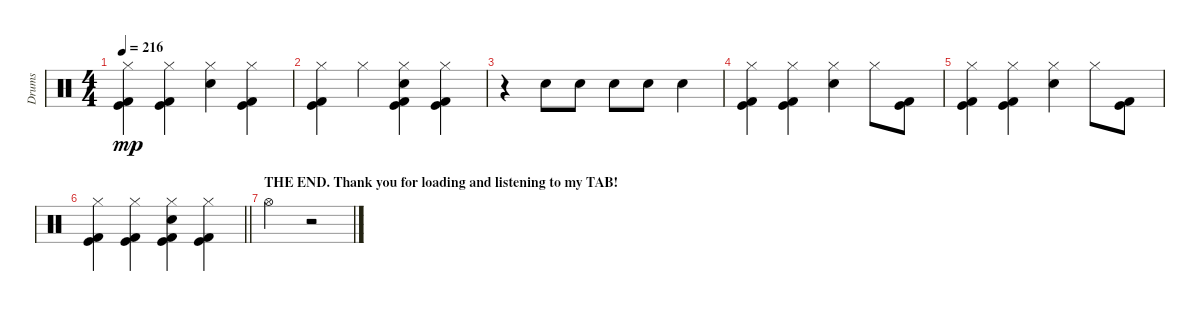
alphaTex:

\track ("Drums" "Drums") {instrument percussion}
\staff {score}
\articulation defaults
\ts (4 4)
\tempo 216
\clef neutral
\ks c
("Hi-Hat (closed)" "Kick (hit)" "Kick (hit) 2").4{dy mp} ("Hi-Hat (closed)" "Kick (hit)" "Kick (hit) 2").4 ("Hi-Hat (closed)" "Snare (hit) 2").4 ("Hi-Hat (closed)" "Kick (hit)" "Kick (hit) 2").4 |
("Hi-Hat (closed)" "Kick (hit)" "Kick (hit) 2").4 "Hi-Hat (closed)".4 ("Hi-Hat (closed)" "Kick (hit)" "Snare (hit) 2" "Kick (hit) 2").4 ("Hi-Hat (closed)" "Kick (hit)" "Kick (hit) 2").4 |
r.4 "Snare (hit) 2".8 "Snare (hit) 2".8 "Snare (hit) 2".8 "Snare (hit) 2".8 "Snare (hit) 2".4 |
("Hi-Hat (closed)" "Kick (hit)" "Kick (hit) 2").4 ("Hi-Hat (closed)" "Kick (hit)" "Kick (hit) 2").4 ("Hi-Hat (closed)" "Snare (hit) 2").4 "Hi-Hat (closed)".8 ("Kick (hit) 2" "Kick (hit)").8 |
("Hi-Hat (closed)" "Kick (hit)" "Kick (hit) 2").4 ("Hi-Hat (closed)" "Kick (hit)" "Kick (hit) 2").4 ("Hi-Hat (closed)" "Snare (hit) 2").4 "Hi-Hat (closed)".8 ("Kick (hit) 2" "Kick (hit)").8 |
\barLineRight lightlight
("Hi-Hat (closed)" "Kick (hit) 2" "Kick (hit)").4 ("Hi-Hat (closed)" "Kick (hit) 2" "Kick (hit)").4 ("Hi-Hat (closed)" "Kick (hit) 2" "Kick (hit)" "Snare (hit) 2").4 ("Hi-Hat (closed)" "Kick (hit) 2" "Kick (hit)").4 |
\section ("" "THE END. Thank you for loading and listening to my TAB!")
"Hi-Hat (open)".2 r.2
